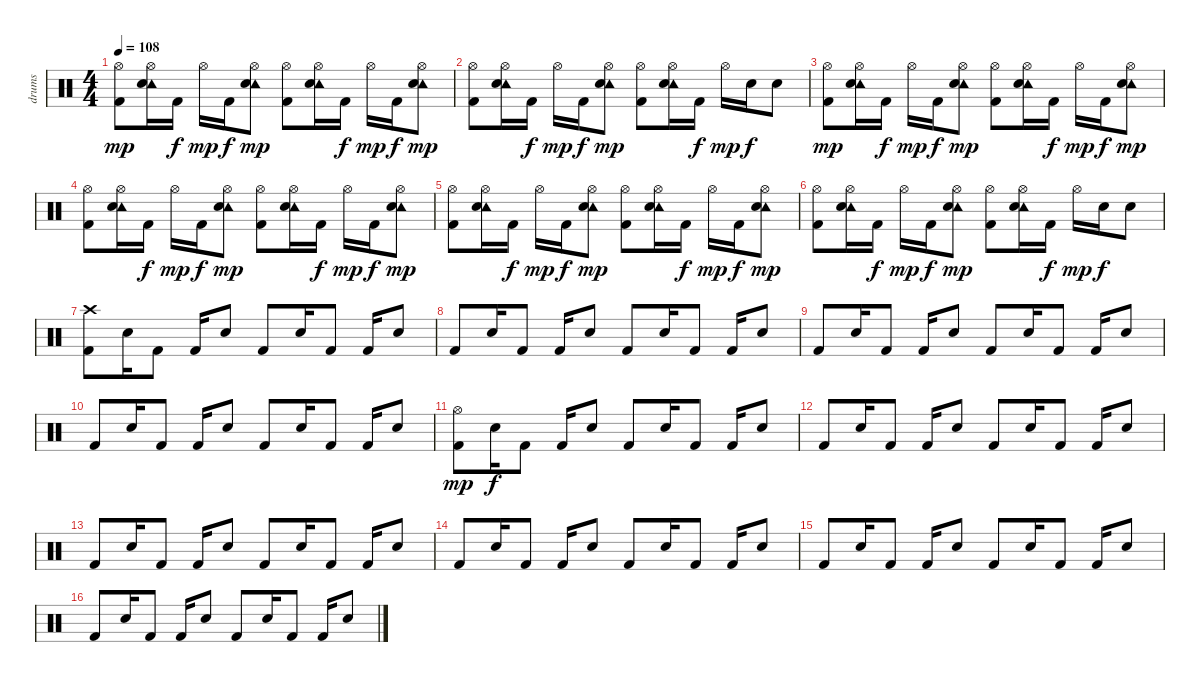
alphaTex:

\track ("drums" "drums") {instrument percussion}
\staff {score}
\articulation defaults
\ts (4 4)
\tempo 108
\clef neutral
\ks c
("Hi-Hat (open)" "Kick (hit) 2").8{dy mp} ("Tambourine (hit)" "Hi-Hat (open)" "Snare (hit) 2").16 "Kick (hit) 2".16{dy f} "Hi-Hat (open)".16{dy mp} "Kick (hit) 2".16{dy f} ("Tambourine (hit)" "Hi-Hat (open)" "Snare (hit) 2").8{dy mp} ("Hi-Hat (open)" "Kick (hit) 2").8 ("Tambourine (hit)" "Hi-Hat (open)" "Snare (hit) 2").16 "Kick (hit) 2".16{dy f} "Hi-Hat (open)".16{dy mp} "Kick (hit) 2".16{dy f} ("Tambourine (hit)" "Hi-Hat (open)" "Snare (hit) 2").8{dy mp} |
("Hi-Hat (open)" "Kick (hit) 2").8 ("Tambourine (hit)" "Hi-Hat (open)" "Snare (hit) 2").16 "Kick (hit) 2".16{dy f} "Hi-Hat (open)".16{dy mp} "Kick (hit) 2".16{dy f} ("Tambourine (hit)" "Hi-Hat (open)" "Snare (hit) 2").8{dy mp} ("Hi-Hat (open)" "Kick (hit) 2").8 ("Tambourine (hit)" "Hi-Hat (open)" "Snare (hit) 2").16 "Kick (hit) 2".16{dy f} "Hi-Hat (open)".16{dy mp} "Snare (hit) 2".16{dy f} "Snare (hit) 2".8 |
("Hi-Hat (open)" "Kick (hit) 2").8{dy mp} ("Tambourine (hit)" "Hi-Hat (open)" "Snare (hit) 2").16 "Kick (hit) 2".16{dy f} "Hi-Hat (open)".16{dy mp} "Kick (hit) 2".16{dy f} ("Tambourine (hit)" "Hi-Hat (open)" "Snare (hit) 2").8{dy mp} ("Hi-Hat (open)" "Kick (hit) 2").8 ("Tambourine (hit)" "Hi-Hat (open)" "Snare (hit) 2").16 "Kick (hit) 2".16{dy f} "Hi-Hat (open)".16{dy mp} "Kick (hit) 2".16{dy f} ("Tambourine (hit)" "Hi-Hat (open)" "Snare (hit) 2").8{dy mp} |
("Hi-Hat (open)" "Kick (hit) 2").8 ("Tambourine (hit)" "Hi-Hat (open)" "Snare (hit) 2").16 "Kick (hit) 2".16{dy f} "Hi-Hat (open)".16{dy mp} "Kick (hit) 2".16{dy f} ("Tambourine (hit)" "Hi-Hat (open)" "Snare (hit) 2").8{dy mp} ("Hi-Hat (open)" "Kick (hit) 2").8 ("Tambourine (hit)" "Hi-Hat (open)" "Snare (hit) 2").16 "Kick (hit) 2".16{dy f} "Hi-Hat (open)".16{dy mp} "Kick (hit) 2".16{dy f} ("Tambourine (hit)" "Hi-Hat (open)" "Snare (hit) 2").8{dy mp} |
("Hi-Hat (open)" "Kick (hit) 2").8 ("Tambourine (hit)" "Hi-Hat (open)" "Snare (hit) 2").16 "Kick (hit) 2".16{dy f} "Hi-Hat (open)".16{dy mp} "Kick (hit) 2".16{dy f} ("Tambourine (hit)" "Hi-Hat (open)" "Snare (hit) 2").8{dy mp} ("Hi-Hat (open)" "Kick (hit) 2").8 ("Tambourine (hit)" "Hi-Hat (open)" "Snare (hit) 2").16 "Kick (hit) 2".16{dy f} "Hi-Hat (open)".16{dy mp} "Kick (hit) 2".16{dy f} ("Tambourine (hit)" "Hi-Hat (open)" "Snare (hit) 2").8{dy mp} |
("Hi-Hat (open)" "Kick (hit) 2").8 ("Tambourine (hit)" "Hi-Hat (open)" "Snare (hit) 2").16 "Kick (hit) 2".16{dy f} "Hi-Hat (open)".16{dy mp} "Kick (hit) 2".16{dy f} ("Tambourine (hit)" "Hi-Hat (open)" "Snare (hit) 2").8{dy mp} ("Hi-Hat (open)" "Kick (hit) 2").8 ("Tambourine (hit)" "Hi-Hat (open)" "Snare (hit) 2").16 "Kick (hit) 2".16{dy f} "Hi-Hat (open)".16{dy mp} "Snare (hit) 2".16{dy f} "Snare (hit) 2".8 |
("Crash high (hit)" "Kick (hit) 2").8 "Snare (hit) 2".16 "Kick (hit) 2".8 "Kick (hit) 2".16 "Snare (hit) 2".8 "Kick (hit) 2".8 "Snare (hit) 2".16 "Kick (hit) 2".8 "Kick (hit) 2".16 "Snare (hit) 2".8 |
"Kick (hit) 2".8 "Snare (hit) 2".16 "Kick (hit) 2".8 "Kick (hit) 2".16 "Snare (hit) 2".8 "Kick (hit) 2".8 "Snare (hit) 2".16 "Kick (hit) 2".8 "Kick (hit) 2".16 "Snare (hit) 2".8 |
"Kick (hit) 2".8 "Snare (hit) 2".16 "Kick (hit) 2".8 "Kick (hit) 2".16 "Snare (hit) 2".8 "Kick (hit) 2".8 "Snare (hit) 2".16 "Kick (hit) 2".8 "Kick (hit) 2".16 "Snare (hit) 2".8 |
"Kick (hit) 2".8 "Snare (hit) 2".16 "Kick (hit) 2".8 "Kick (hit) 2".16 "Snare (hit) 2".8 "Kick (hit) 2".8 "Snare (hit) 2".16 "Kick (hit) 2".8 "Kick (hit) 2".16 "Snare (hit) 2".8 |
("Hi-Hat (open)" "Kick (hit) 2").8{dy mp} "Snare (hit) 2".16{dy f} "Kick (hit) 2".8 "Kick (hit) 2".16 "Snare (hit) 2".8 "Kick (hit) 2".8 "Snare (hit) 2".16 "Kick (hit) 2".8 "Kick (hit) 2".16 "Snare (hit) 2".8 |
"Kick (hit) 2".8 "Snare (hit) 2".16 "Kick (hit) 2".8 "Kick (hit) 2".16 "Snare (hit) 2".8 "Kick (hit) 2".8 "Snare (hit) 2".16 "Kick (hit) 2".8 "Kick (hit) 2".16 "Snare (hit) 2".8 |
"Kick (hit) 2".8 "Snare (hit) 2".16 "Kick (hit) 2".8 "Kick (hit) 2".16 "Snare (hit) 2".8 "Kick (hit) 2".8 "Snare (hit) 2".16 "Kick (hit) 2".8 "Kick (hit) 2".16 "Snare (hit) 2".8 |
"Kick (hit) 2".8 "Snare (hit) 2".16 "Kick (hit) 2".8 "Kick (hit) 2".16 "Snare (hit) 2".8 "Kick (hit) 2".8 "Snare (hit) 2".16 "Kick (hit) 2".8 "Kick (hit) 2".16 "Snare (hit) 2".8 |
"Kick (hit) 2".8 "Snare (hit) 2".16 "Kick (hit) 2".8 "Kick (hit) 2".16 "Snare (hit) 2".8 "Kick (hit) 2".8 "Snare (hit) 2".16 "Kick (hit) 2".8 "Kick (hit) 2".16 "Snare (hit) 2".8 |
"Kick (hit) 2".8 "Snare (hit) 2".16 "Kick (hit) 2".8 "Kick (hit) 2".16 "Snare (hit) 2".8 "Kick (hit) 2".8 "Snare (hit) 2".16 "Kick (hit) 2".8 "Kick (hit) 2".16 "Snare (hit) 2".8
